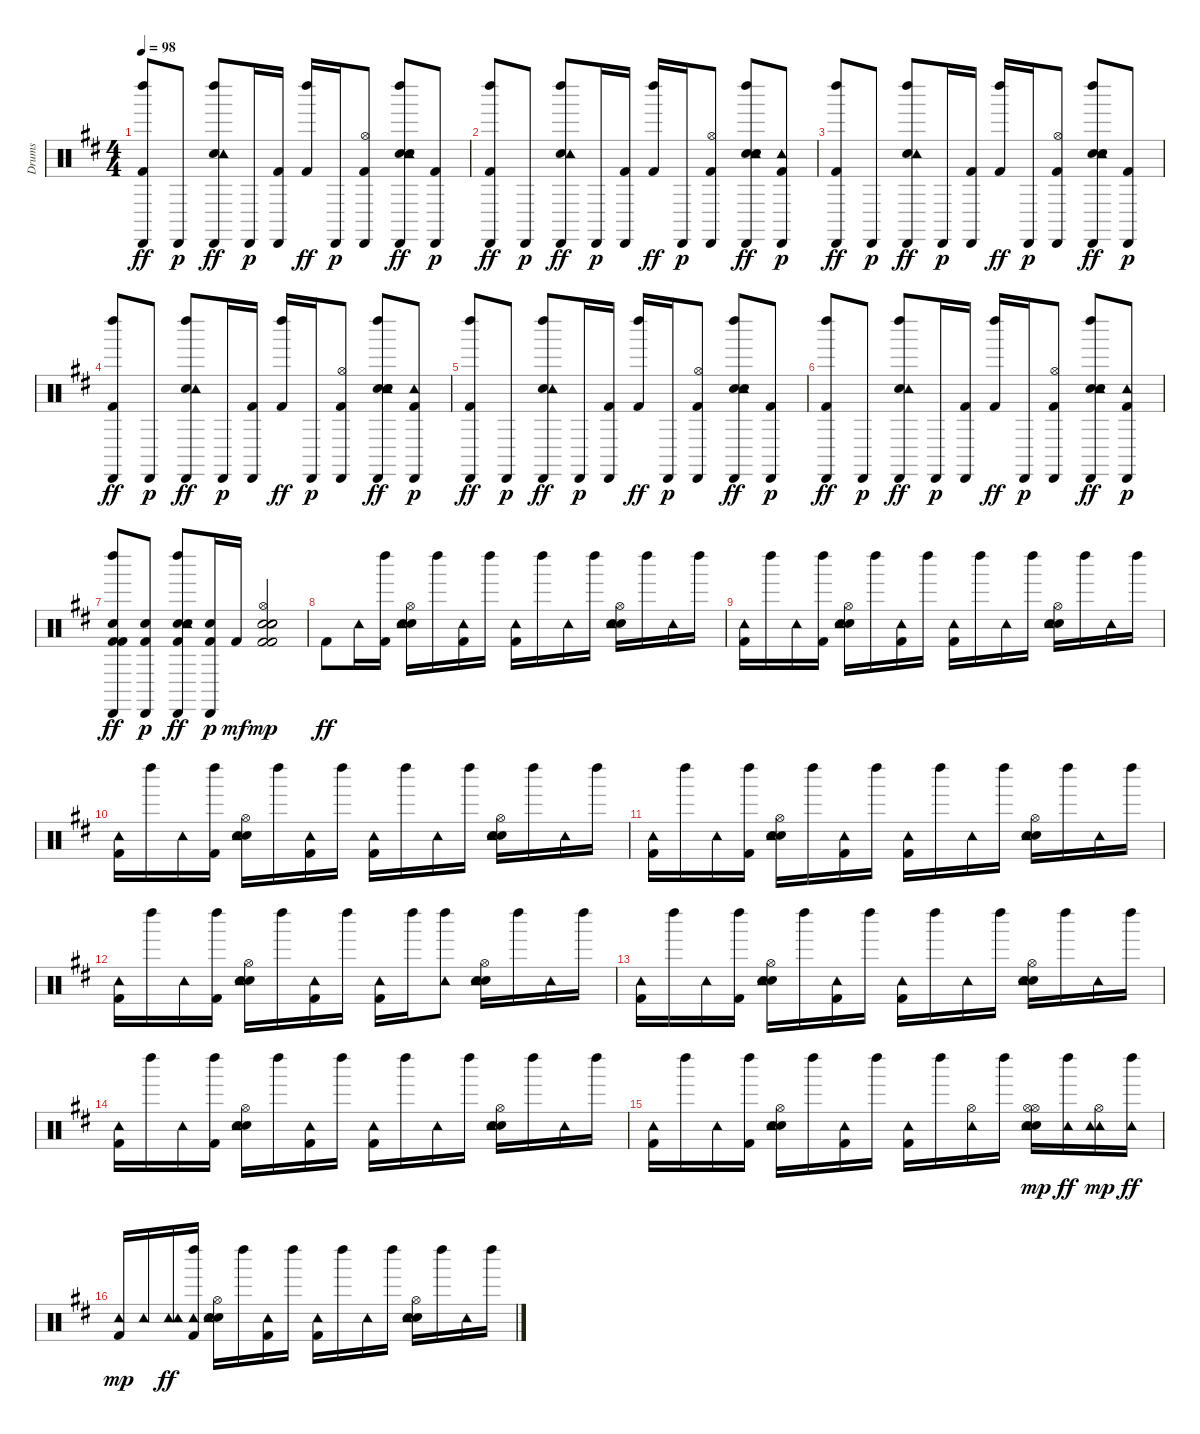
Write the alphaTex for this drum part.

\track ("Drums" "Drums") {instrument percussion}
\staff {score}
\articulation defaults
\ts (4 4)
\tempo 98
\clef neutral
\ks d
("Kick (hit) 2" "Cabasa (hit)" "Left Maraca (hit)").8{dy ff} "Cabasa (hit)".8{dy p} ("Electric Snare (hit)" "Tambourine (hit)" "Cabasa (hit)" "Left Maraca (hit)").8{dy ff} "Cabasa (hit)".16{dy p} ("Kick (hit) 2" "Cabasa (hit)").16 ("Kick (hit) 2" "Left Maraca (hit)").16{dy ff} "Cabasa (hit)".16{dy p} ("Kick (hit) 2" "Hi-Hat (open)" "Cabasa (hit)").8 ("Hand Clap (hit)" "Electric Snare (hit)" "Tambourine (hit)" "Cabasa (hit)" "Left Maraca (hit)").8{dy ff} ("Kick (hit) 2" "Cabasa (hit)").8{dy p} |
("Kick (hit) 2" "Cabasa (hit)" "Left Maraca (hit)").8{dy ff} "Cabasa (hit)".8{dy p} ("Electric Snare (hit)" "Tambourine (hit)" "Cabasa (hit)" "Left Maraca (hit)").8{dy ff} "Cabasa (hit)".16{dy p} ("Kick (hit) 2" "Cabasa (hit)").16 ("Kick (hit) 2" "Left Maraca (hit)").16{dy ff} "Cabasa (hit)".16{dy p} ("Kick (hit) 2" "Hi-Hat (open)" "Cabasa (hit)").8 ("Hand Clap (hit)" "Electric Snare (hit)" "Tambourine (hit)" "Cabasa (hit)" "Left Maraca (hit)").8{dy ff} ("Kick (hit) 2" "Tambourine (hit)" "Cabasa (hit)").8{dy p} |
("Kick (hit) 2" "Cabasa (hit)" "Left Maraca (hit)").8{dy ff} "Cabasa (hit)".8{dy p} ("Electric Snare (hit)" "Tambourine (hit)" "Cabasa (hit)" "Left Maraca (hit)").8{dy ff} "Cabasa (hit)".16{dy p} ("Kick (hit) 2" "Cabasa (hit)").16 ("Kick (hit) 2" "Left Maraca (hit)").16{dy ff} "Cabasa (hit)".16{dy p} ("Kick (hit) 2" "Hi-Hat (open)" "Cabasa (hit)").8 ("Hand Clap (hit)" "Electric Snare (hit)" "Tambourine (hit)" "Cabasa (hit)" "Left Maraca (hit)").8{dy ff} ("Kick (hit) 2" "Cabasa (hit)").8{dy p} |
("Kick (hit) 2" "Cabasa (hit)" "Left Maraca (hit)").8{dy ff} "Cabasa (hit)".8{dy p} ("Electric Snare (hit)" "Tambourine (hit)" "Cabasa (hit)" "Left Maraca (hit)").8{dy ff} "Cabasa (hit)".16{dy p} ("Kick (hit) 2" "Cabasa (hit)").16 ("Kick (hit) 2" "Left Maraca (hit)").16{dy ff} "Cabasa (hit)".16{dy p} ("Kick (hit) 2" "Hi-Hat (open)" "Cabasa (hit)").8 ("Snare (hit) 2" "Hand Clap (hit)" "Electric Snare (hit)" "Tambourine (hit)" "Cabasa (hit)" "Left Maraca (hit)").8{dy ff} ("Kick (hit) 2" "Tambourine (hit)" "Cabasa (hit)").8{dy p} |
("Kick (hit) 2" "Cabasa (hit)" "Left Maraca (hit)").8{dy ff} "Cabasa (hit)".8{dy p} ("Electric Snare (hit)" "Tambourine (hit)" "Cabasa (hit)" "Left Maraca (hit)").8{dy ff} "Cabasa (hit)".16{dy p} ("Kick (hit) 2" "Cabasa (hit)").16 ("Kick (hit) 2" "Left Maraca (hit)").16{dy ff} "Cabasa (hit)".16{dy p} ("Kick (hit) 2" "Hi-Hat (open)" "Cabasa (hit)").8 ("Hand Clap (hit)" "Electric Snare (hit)" "Tambourine (hit)" "Cabasa (hit)" "Left Maraca (hit)").8{dy ff} ("Kick (hit) 2" "Cabasa (hit)").8{dy p} |
("Kick (hit) 2" "Cabasa (hit)" "Left Maraca (hit)").8{dy ff} "Cabasa (hit)".8{dy p} ("Electric Snare (hit)" "Tambourine (hit)" "Cabasa (hit)" "Left Maraca (hit)").8{dy ff} "Cabasa (hit)".16{dy p} ("Kick (hit) 2" "Cabasa (hit)").16 ("Kick (hit) 2" "Left Maraca (hit)").16{dy ff} "Cabasa (hit)".16{dy p} ("Kick (hit) 2" "Hi-Hat (open)" "Cabasa (hit)").8 ("Hand Clap (hit)" "Electric Snare (hit)" "Tambourine (hit)" "Cabasa (hit)" "Left Maraca (hit)").8{dy ff} ("Kick (hit) 2" "Tambourine (hit)" "Cabasa (hit)").8{dy p} |
("Kick (hit) 2" "Kick (hit) 2" "Snare (hit) 2" "Cabasa (hit)" "Left Maraca (hit)").8{dy ff} ("Kick (hit) 2" "Snare (hit) 2" "Cabasa (hit)").8{dy p} ("Kick (hit) 2" "Snare (hit) 2" "Electric Snare (hit)" "Tambourine (hit)" "Cabasa (hit)" "Left Maraca (hit)").8{dy ff} ("Kick (hit) 2" "Snare (hit) 2" "Cabasa (hit)").16{dy p} "Kick (hit) 2".16{dy mf} ("Kick (hit) 2" "Kick (hit) 2" "Snare (hit) 2" "Hand Clap (hit)" "Electric Snare (hit)" "Hi-Hat (open)").2{dy mp} |
"Kick (hit) 2".8{dy ff} "Tambourine (hit)".16 ("Kick (hit) 2" "Left Maraca (hit)").16 ("Snare (hit) 2" "Electric Snare (hit)" "Hi-Hat (open)" "Tambourine (hit)").16 "Left Maraca (hit)".16 ("Kick (hit) 2" "Tambourine (hit)").16 "Left Maraca (hit)".16 ("Kick (hit) 2" "Tambourine (hit)").16 "Left Maraca (hit)".16 "Tambourine (hit)".16 "Left Maraca (hit)".16 ("Snare (hit) 2" "Electric Snare (hit)" "Hi-Hat (open)" "Tambourine (hit)").16 "Left Maraca (hit)".16 "Tambourine (hit)".16 "Left Maraca (hit)".16 |
("Kick (hit) 2" "Tambourine (hit)").16 "Left Maraca (hit)".16 "Tambourine (hit)".16 ("Kick (hit) 2" "Left Maraca (hit)").16 ("Snare (hit) 2" "Electric Snare (hit)" "Hi-Hat (open)" "Tambourine (hit)").16 "Left Maraca (hit)".16 ("Kick (hit) 2" "Tambourine (hit)").16 "Left Maraca (hit)".16 ("Kick (hit) 2" "Tambourine (hit)").16 "Left Maraca (hit)".16 "Tambourine (hit)".16 "Left Maraca (hit)".16 ("Snare (hit) 2" "Electric Snare (hit)" "Hi-Hat (open)" "Tambourine (hit)").16 "Left Maraca (hit)".16 "Tambourine (hit)".16 "Left Maraca (hit)".16 |
("Kick (hit) 2" "Tambourine (hit)").16 "Left Maraca (hit)".16 "Tambourine (hit)".16 ("Kick (hit) 2" "Left Maraca (hit)").16 ("Snare (hit) 2" "Electric Snare (hit)" "Hi-Hat (open)" "Tambourine (hit)").16 "Left Maraca (hit)".16 ("Kick (hit) 2" "Tambourine (hit)").16 "Left Maraca (hit)".16 ("Kick (hit) 2" "Tambourine (hit)").16 "Left Maraca (hit)".16 "Tambourine (hit)".16 "Left Maraca (hit)".16 ("Snare (hit) 2" "Electric Snare (hit)" "Hi-Hat (open)" "Tambourine (hit)").16 "Left Maraca (hit)".16 "Tambourine (hit)".16 "Left Maraca (hit)".16 |
("Kick (hit) 2" "Tambourine (hit)").16 "Left Maraca (hit)".16 "Tambourine (hit)".16 ("Kick (hit) 2" "Left Maraca (hit)").16 ("Snare (hit) 2" "Electric Snare (hit)" "Hi-Hat (open)" "Tambourine (hit)").16 "Left Maraca (hit)".16 ("Kick (hit) 2" "Tambourine (hit)").16 "Left Maraca (hit)".16 ("Kick (hit) 2" "Tambourine (hit)").16 "Left Maraca (hit)".16 "Tambourine (hit)".16 "Left Maraca (hit)".16 ("Snare (hit) 2" "Electric Snare (hit)" "Hi-Hat (open)" "Tambourine (hit)").16 "Left Maraca (hit)".16 "Tambourine (hit)".16 "Left Maraca (hit)".16 |
("Kick (hit) 2" "Tambourine (hit)").16 "Left Maraca (hit)".16 "Tambourine (hit)".16 ("Kick (hit) 2" "Left Maraca (hit)").16 ("Snare (hit) 2" "Electric Snare (hit)" "Hi-Hat (open)" "Tambourine (hit)").16 "Left Maraca (hit)".16 ("Kick (hit) 2" "Tambourine (hit)").16 "Left Maraca (hit)".16 ("Kick (hit) 2" "Tambourine (hit)").16 "Left Maraca (hit)".16 ("Tambourine (hit)" "Left Maraca (hit)").8 ("Snare (hit) 2" "Electric Snare (hit)" "Hi-Hat (open)" "Tambourine (hit)").16 "Left Maraca (hit)".16 "Tambourine (hit)".16 "Left Maraca (hit)".16 |
("Kick (hit) 2" "Tambourine (hit)").16 "Left Maraca (hit)".16 "Tambourine (hit)".16 ("Kick (hit) 2" "Left Maraca (hit)").16 ("Snare (hit) 2" "Electric Snare (hit)" "Hi-Hat (open)" "Tambourine (hit)").16 "Left Maraca (hit)".16 ("Kick (hit) 2" "Tambourine (hit)").16 "Left Maraca (hit)".16 ("Kick (hit) 2" "Tambourine (hit)").16 "Left Maraca (hit)".16 "Tambourine (hit)".16 "Left Maraca (hit)".16 ("Snare (hit) 2" "Electric Snare (hit)" "Hi-Hat (open)" "Tambourine (hit)").16 "Left Maraca (hit)".16 "Tambourine (hit)".16 "Left Maraca (hit)".16 |
("Kick (hit) 2" "Tambourine (hit)").16 "Left Maraca (hit)".16 "Tambourine (hit)".16 ("Kick (hit) 2" "Left Maraca (hit)").16 ("Snare (hit) 2" "Electric Snare (hit)" "Hi-Hat (open)" "Tambourine (hit)").16 "Left Maraca (hit)".16 ("Kick (hit) 2" "Tambourine (hit)").16 "Left Maraca (hit)".16 ("Kick (hit) 2" "Tambourine (hit)").16 "Left Maraca (hit)".16 "Tambourine (hit)".16 "Left Maraca (hit)".16 ("Snare (hit) 2" "Electric Snare (hit)" "Hi-Hat (open)" "Tambourine (hit)").16 "Left Maraca (hit)".16 "Tambourine (hit)".16 "Left Maraca (hit)".16 |
("Kick (hit) 2" "Tambourine (hit)").16 "Left Maraca (hit)".16 "Tambourine (hit)".16 ("Kick (hit) 2" "Left Maraca (hit)").16 ("Snare (hit) 2" "Electric Snare (hit)" "Hi-Hat (open)" "Tambourine (hit)").16 "Left Maraca (hit)".16 ("Kick (hit) 2" "Tambourine (hit)").16 "Left Maraca (hit)".16 ("Kick (hit) 2" "Tambourine (hit)").16 "Left Maraca (hit)".16 ("Hi-Hat (open)" "Tambourine (hit)").16 "Left Maraca (hit)".16 ("Snare (hit) 2" "Electric Snare (hit)" "Hi-Hat (open)" "Hi-Hat (open)" "Tambourine (hit)" "Tambourine (hit)").16{dy mp} ("Tambourine (hit)" "Left Maraca (hit)").16{dy ff} ("Hi-Hat (open)" "Tambourine (hit)" "Tambourine (hit)").16{dy mp} ("Tambourine (hit)" "Left Maraca (hit)").16{dy ff} |
("Kick (hit) 2" "Tambourine (hit)").16{dy mp} "Tambourine (hit)".16 ("Tambourine (hit)" "Tambourine (hit)").16{dy ff} ("Kick (hit) 2" "Tambourine (hit)" "Left Maraca (hit)").16 ("Snare (hit) 2" "Electric Snare (hit)" "Hi-Hat (open)" "Tambourine (hit)").16 "Left Maraca (hit)".16 ("Kick (hit) 2" "Tambourine (hit)").16 "Left Maraca (hit)".16 ("Kick (hit) 2" "Tambourine (hit)").16 "Left Maraca (hit)".16 "Tambourine (hit)".16 "Left Maraca (hit)".16 ("Snare (hit) 2" "Electric Snare (hit)" "Hi-Hat (open)" "Tambourine (hit)").16 "Left Maraca (hit)".16 "Tambourine (hit)".16 "Left Maraca (hit)".16
